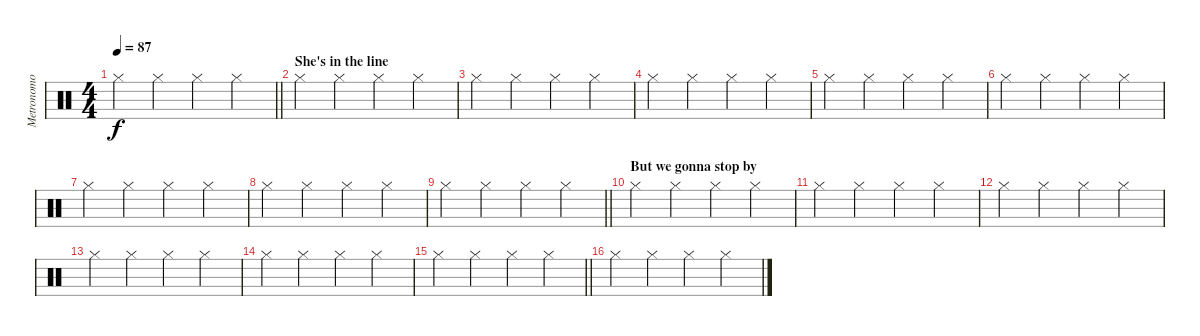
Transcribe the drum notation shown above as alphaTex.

\track ("Metronomo" "Metronomo") {instrument percussion}
\staff {score}
\articulation defaults
\ts (4 4)
\tempo 87
\clef neutral
\barLineRight lightlight
\ks c "Hi-Hat (closed)".4{dy f} "Hi-Hat (closed)".4 "Hi-Hat (closed)".4 "Hi-Hat (closed)".4
|
\section ("" "She's in the line")
"Hi-Hat (closed)".4 "Hi-Hat (closed)".4 "Hi-Hat (closed)".4 "Hi-Hat (closed)".4 |
"Hi-Hat (closed)".4 "Hi-Hat (closed)".4 "Hi-Hat (closed)".4 "Hi-Hat (closed)".4 |
"Hi-Hat (closed)".4 "Hi-Hat (closed)".4 "Hi-Hat (closed)".4 "Hi-Hat (closed)".4 |
"Hi-Hat (closed)".4 "Hi-Hat (closed)".4 "Hi-Hat (closed)".4 "Hi-Hat (closed)".4 |
"Hi-Hat (closed)".4 "Hi-Hat (closed)".4 "Hi-Hat (closed)".4 "Hi-Hat (closed)".4 |
"Hi-Hat (closed)".4 "Hi-Hat (closed)".4 "Hi-Hat (closed)".4 "Hi-Hat (closed)".4 |
"Hi-Hat (closed)".4 "Hi-Hat (closed)".4 "Hi-Hat (closed)".4 "Hi-Hat (closed)".4 |
\barLineRight lightlight "Hi-Hat (closed)".4 "Hi-Hat (closed)".4 "Hi-Hat (closed)".4 "Hi-Hat (closed)".4
|
\section ("" "But we gonna stop by")
"Hi-Hat (closed)".4 "Hi-Hat (closed)".4 "Hi-Hat (closed)".4 "Hi-Hat (closed)".4 |
"Hi-Hat (closed)".4 "Hi-Hat (closed)".4 "Hi-Hat (closed)".4 "Hi-Hat (closed)".4 |
"Hi-Hat (closed)".4 "Hi-Hat (closed)".4 "Hi-Hat (closed)".4 "Hi-Hat (closed)".4 |
"Hi-Hat (closed)".4 "Hi-Hat (closed)".4 "Hi-Hat (closed)".4 "Hi-Hat (closed)".4 |
"Hi-Hat (closed)".4 "Hi-Hat (closed)".4 "Hi-Hat (closed)".4 "Hi-Hat (closed)".4 |
\barLineRight lightlight "Hi-Hat (closed)".4 "Hi-Hat (closed)".4 "Hi-Hat (closed)".4 "Hi-Hat (closed)".4
|
"Hi-Hat (closed)".4 "Hi-Hat (closed)".4 "Hi-Hat (closed)".4 "Hi-Hat (closed)".4
